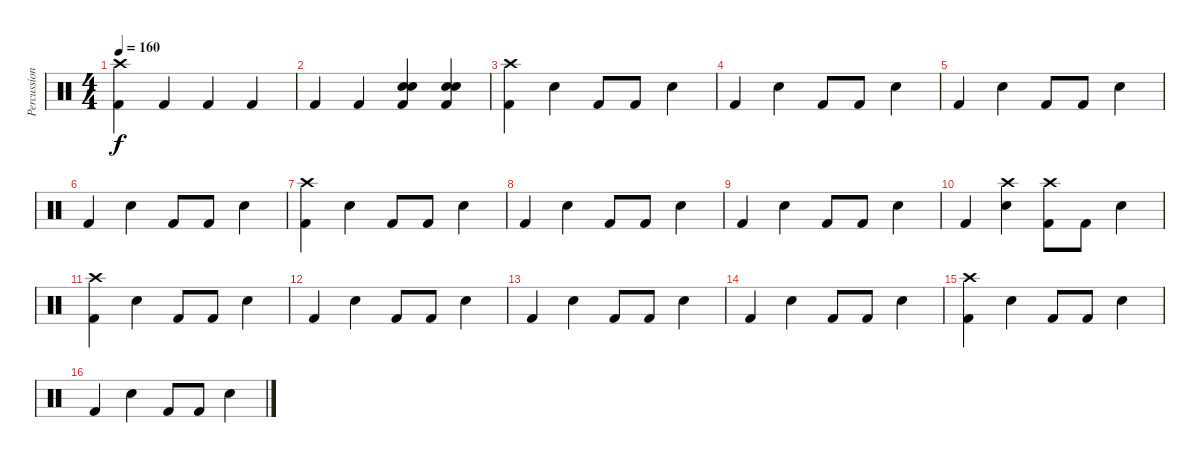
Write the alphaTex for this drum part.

\track ("Percussion" "Percussion") {instrument percussion}
\staff {score}
\articulation defaults
\ts (4 4)
\tempo 160
\clef neutral
\ks c
("Crash high (hit)" "Kick (hit) 2").4{dy f} "Kick (hit) 2".4 "Kick (hit) 2".4 "Kick (hit) 2".4 |
"Kick (hit) 2".4 "Kick (hit) 2".4 ("Snare (hit) 2" "Snare (hit) 2" "Kick (hit) 2").4 ("Snare (hit) 2" "Snare (hit) 2" "Kick (hit) 2").4 |
("Crash high (hit)" "Kick (hit) 2").4 "Snare (hit) 2".4 "Kick (hit) 2".8 "Kick (hit) 2".8 "Snare (hit) 2".4 |
"Kick (hit) 2".4 "Snare (hit) 2".4 "Kick (hit) 2".8 "Kick (hit) 2".8 "Snare (hit) 2".4 |
"Kick (hit) 2".4 "Snare (hit) 2".4 "Kick (hit) 2".8 "Kick (hit) 2".8 "Snare (hit) 2".4 |
"Kick (hit) 2".4 "Snare (hit) 2".4 "Kick (hit) 2".8 "Kick (hit) 2".8 "Snare (hit) 2".4 |
("Crash high (hit)" "Kick (hit) 2").4 "Snare (hit) 2".4 "Kick (hit) 2".8 "Kick (hit) 2".8 "Snare (hit) 2".4 |
"Kick (hit) 2".4 "Snare (hit) 2".4 "Kick (hit) 2".8 "Kick (hit) 2".8 "Snare (hit) 2".4 |
"Kick (hit) 2".4 "Snare (hit) 2".4 "Kick (hit) 2".8 "Kick (hit) 2".8 "Snare (hit) 2".4 |
"Kick (hit) 2".4 ("Crash high (hit)" "Snare (hit) 2").4 ("Crash high (hit)" "Kick (hit) 2").8 "Kick (hit) 2".8 "Snare (hit) 2".4 |
("Crash high (hit)" "Kick (hit) 2").4 "Snare (hit) 2".4 "Kick (hit) 2".8 "Kick (hit) 2".8 "Snare (hit) 2".4 |
"Kick (hit) 2".4 "Snare (hit) 2".4 "Kick (hit) 2".8 "Kick (hit) 2".8 "Snare (hit) 2".4 |
"Kick (hit) 2".4 "Snare (hit) 2".4 "Kick (hit) 2".8 "Kick (hit) 2".8 "Snare (hit) 2".4 |
"Kick (hit) 2".4 "Snare (hit) 2".4 "Kick (hit) 2".8 "Kick (hit) 2".8 "Snare (hit) 2".4 |
("Crash high (hit)" "Kick (hit) 2").4 "Snare (hit) 2".4 "Kick (hit) 2".8 "Kick (hit) 2".8 "Snare (hit) 2".4 |
"Kick (hit) 2".4 "Snare (hit) 2".4 "Kick (hit) 2".8 "Kick (hit) 2".8 "Snare (hit) 2".4
